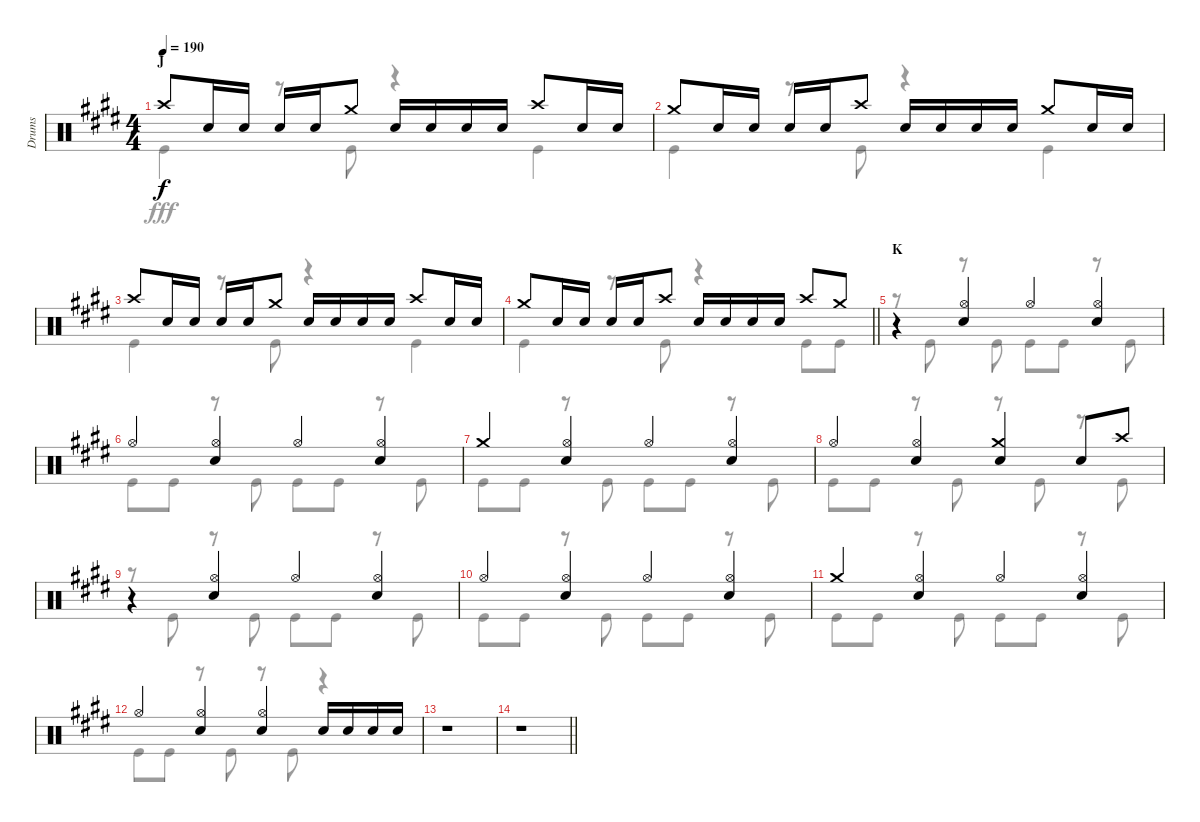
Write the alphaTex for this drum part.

\track ("Drums" "Drums") {instrument percussion}
\staff {score}
\articulation defaults
\voice
\ts (4 4)
\section ("" "J")
\tempo 190
\clef neutral
\ks e "Crash high (hit)".8{dy f} "Snare (hit) 2".16 "Snare (hit) 2".16 "Snare (hit) 2".16 "Snare (hit) 2".16 "Crash medium (hit)".8 "Snare (hit) 2".16 "Snare (hit) 2".16 "Snare (hit) 2".16 "Snare (hit) 2".16 "Crash high (hit)".8 "Snare (hit) 2".16 "Snare (hit) 2".16
|
"Crash medium (hit)".8 "Snare (hit) 2".16 "Snare (hit) 2".16 "Snare (hit) 2".16 "Snare (hit) 2".16 "Crash high (hit)".8 "Snare (hit) 2".16 "Snare (hit) 2".16 "Snare (hit) 2".16 "Snare (hit) 2".16 "Crash medium (hit)".8 "Snare (hit) 2".16 "Snare (hit) 2".16 |
"Crash high (hit)".8 "Snare (hit) 2".16 "Snare (hit) 2".16 "Snare (hit) 2".16 "Snare (hit) 2".16 "Crash medium (hit)".8 "Snare (hit) 2".16 "Snare (hit) 2".16 "Snare (hit) 2".16 "Snare (hit) 2".16 "Crash high (hit)".8 "Snare (hit) 2".16 "Snare (hit) 2".16 |
\barLineRight lightlight "Crash medium (hit)".8 "Snare (hit) 2".16 "Snare (hit) 2".16 "Snare (hit) 2".16 "Snare (hit) 2".16 "Crash high (hit)".8 "Snare (hit) 2".16 "Snare (hit) 2".16 "Snare (hit) 2".16 "Snare (hit) 2".16 "Crash high (hit)".8 "Crash medium (hit)".8
|
\section ("" "K")
r.4 ("Hi-Hat (open)" "Snare (hit) 2").4 "Hi-Hat (open)".4 ("Hi-Hat (open)" "Snare (hit) 2").4 |
"Hi-Hat (open)".4 ("Hi-Hat (open)" "Snare (hit) 2").4 "Hi-Hat (open)".4 ("Hi-Hat (open)" "Snare (hit) 2").4 |
"Crash medium (hit)".4 ("Hi-Hat (open)" "Snare (hit) 2").4 "Hi-Hat (open)".4 ("Hi-Hat (open)" "Snare (hit) 2").4 |
"Hi-Hat (open)".4 ("Hi-Hat (open)" "Snare (hit) 2").4 ("Crash medium (hit)" "Snare (hit) 2").4 "Snare (hit) 2".8 "Crash high (hit)".8 |
r.4 ("Hi-Hat (open)" "Snare (hit) 2").4 "Hi-Hat (open)".4 ("Hi-Hat (open)" "Snare (hit) 2").4 |
"Hi-Hat (open)".4 ("Hi-Hat (open)" "Snare (hit) 2").4 "Hi-Hat (open)".4 ("Hi-Hat (open)" "Snare (hit) 2").4 |
"Crash medium (hit)".4 ("Hi-Hat (open)" "Snare (hit) 2").4 "Hi-Hat (open)".4 ("Hi-Hat (open)" "Snare (hit) 2").4 |
"Hi-Hat (open)".4 ("Hi-Hat (open)" "Snare (hit) 2").4 ("Hi-Hat (open)" "Snare (hit) 2").4 "Snare (hit) 2".16 "Snare (hit) 2".16 "Snare (hit) 2".16 "Snare (hit) 2".16 |
r.1 |
\barLineRight lightlight
r.1
\voice
\clef neutral
\ottava regular
\simile none
\ks e "Kick (hit)".4{dy fff}
r.8 "Kick (hit)".8 r.4 "Kick (hit)".4 |
"Kick (hit)".4 r.8 "Kick (hit)".8 r.4 "Kick (hit)".4 |
"Kick (hit)".4 r.8 "Kick (hit)".8 r.4 "Kick (hit)".4 |
\barLineRight lightlight "Kick (hit)".4
r.8 "Kick (hit)".8 r.4 "Kick (hit)".8 "Kick (hit)".8 |
r.8 "Kick (hit)".8 r.8 "Kick (hit)".8 "Kick (hit)".8 "Kick (hit)".8 r.8 "Kick (hit)".8 |
"Kick (hit)".8 "Kick (hit)".8 r.8 "Kick (hit)".8 "Kick (hit)".8 "Kick (hit)".8 r.8 "Kick (hit)".8 |
"Kick (hit)".8 "Kick (hit)".8 r.8 "Kick (hit)".8 "Kick (hit)".8 "Kick (hit)".8 r.8 "Kick (hit)".8 |
"Kick (hit)".8 "Kick (hit)".8 r.8 "Kick (hit)".8 r.8 "Kick (hit)".8 r.8 "Kick (hit)".8 |
r.8 "Kick (hit)".8 r.8 "Kick (hit)".8 "Kick (hit)".8 "Kick (hit)".8 r.8 "Kick (hit)".8 |
"Kick (hit)".8 "Kick (hit)".8 r.8 "Kick (hit)".8 "Kick (hit)".8 "Kick (hit)".8 r.8 "Kick (hit)".8 |
"Kick (hit)".8 "Kick (hit)".8 r.8 "Kick (hit)".8 "Kick (hit)".8 "Kick (hit)".8 r.8 "Kick (hit)".8 |
"Kick (hit)".8 "Kick (hit)".8 r.8 "Kick (hit)".8 r.8 "Kick (hit)".8 r.4 |
r.1 |
\barLineRight lightlight
r.1
